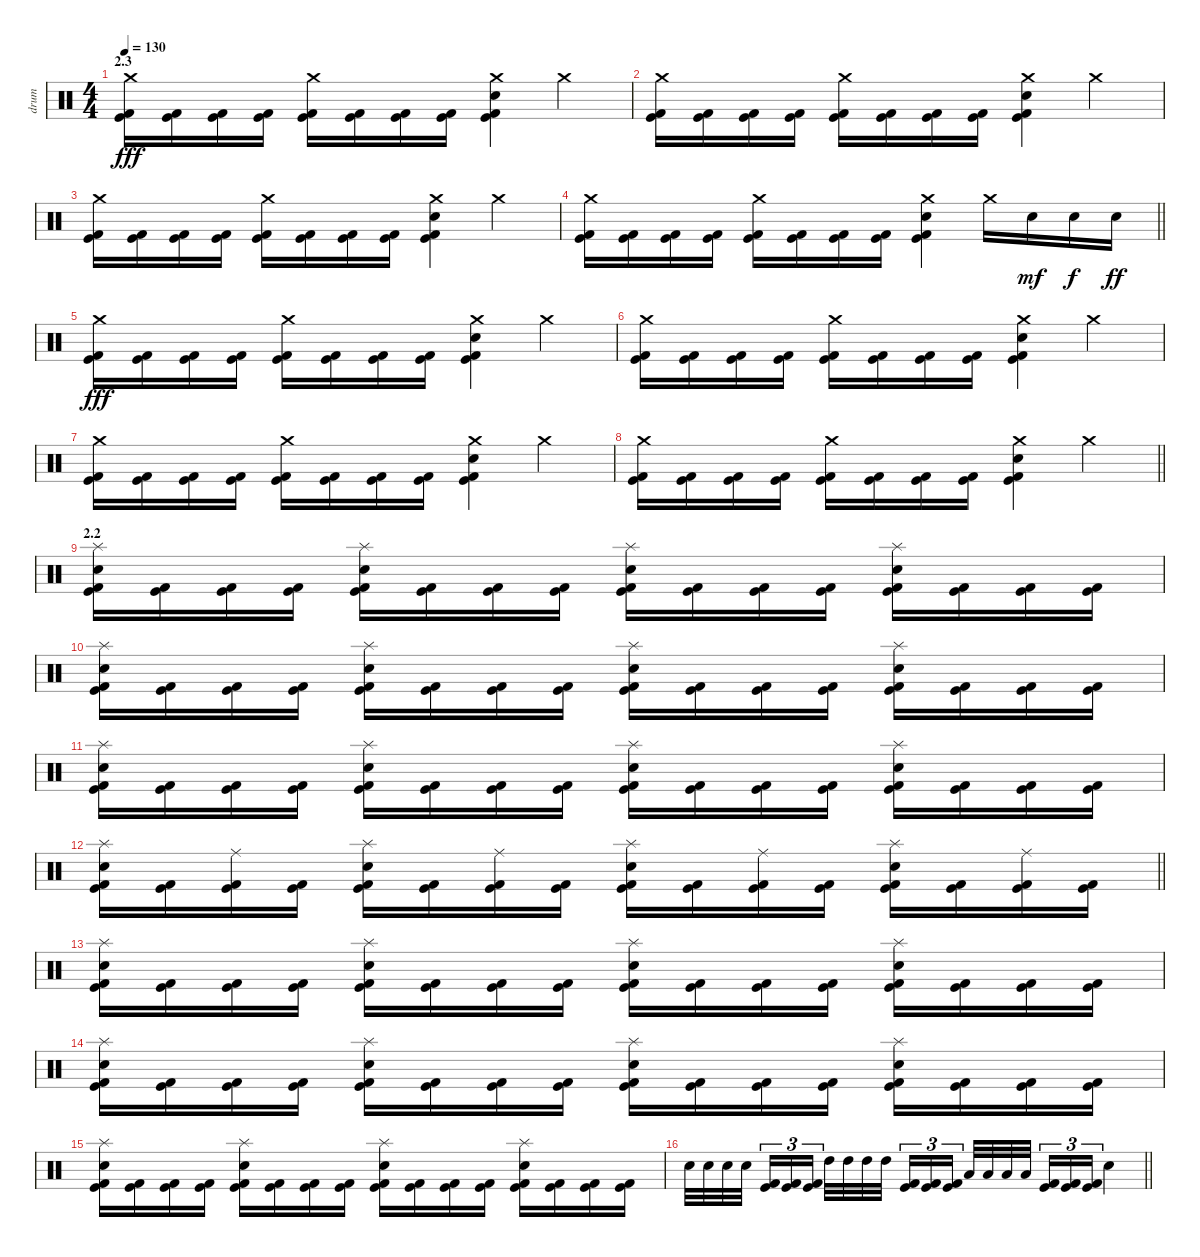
\track ("drum" "drum") {instrument percussion}
\staff {score}
\articulation defaults
\ts (4 4)
\section ("" "2.3")
\tempo 130
\clef neutral
\ks c
("Crash medium (hit)" "Kick (hit)" "Kick (hit) 2").16{dy fff} ("Kick (hit)" "Kick (hit) 2").16 ("Kick (hit)" "Kick (hit) 2").16 ("Kick (hit)" "Kick (hit) 2").16 ("Crash medium (hit)" "Kick (hit)" "Kick (hit) 2").16 ("Kick (hit)" "Kick (hit) 2").16 ("Kick (hit)" "Kick (hit) 2").16 ("Kick (hit)" "Kick (hit) 2").16 ("Crash medium (hit)" "Snare (hit) 2" "Kick (hit)" "Kick (hit) 2").4 "Crash medium (hit)".4 |
("Crash medium (hit)" "Kick (hit)" "Kick (hit) 2").16 ("Kick (hit)" "Kick (hit) 2").16 ("Kick (hit)" "Kick (hit) 2").16 ("Kick (hit)" "Kick (hit) 2").16 ("Crash medium (hit)" "Kick (hit)" "Kick (hit) 2").16 ("Kick (hit)" "Kick (hit) 2").16 ("Kick (hit)" "Kick (hit) 2").16 ("Kick (hit)" "Kick (hit) 2").16 ("Crash medium (hit)" "Snare (hit) 2" "Kick (hit)" "Kick (hit) 2").4 "Crash medium (hit)".4 |
("Crash medium (hit)" "Kick (hit)" "Kick (hit) 2").16 ("Kick (hit)" "Kick (hit) 2").16 ("Kick (hit)" "Kick (hit) 2").16 ("Kick (hit)" "Kick (hit) 2").16 ("Crash medium (hit)" "Kick (hit)" "Kick (hit) 2").16 ("Kick (hit)" "Kick (hit) 2").16 ("Kick (hit)" "Kick (hit) 2").16 ("Kick (hit)" "Kick (hit) 2").16 ("Crash medium (hit)" "Snare (hit) 2" "Kick (hit)" "Kick (hit) 2").4 "Crash medium (hit)".4 |
\barLineRight lightlight
("Crash medium (hit)" "Kick (hit)" "Kick (hit) 2").16 ("Kick (hit)" "Kick (hit) 2").16 ("Kick (hit)" "Kick (hit) 2").16 ("Kick (hit)" "Kick (hit) 2").16 ("Crash medium (hit)" "Kick (hit)" "Kick (hit) 2").16 ("Kick (hit)" "Kick (hit) 2").16 ("Kick (hit)" "Kick (hit) 2").16 ("Kick (hit)" "Kick (hit) 2").16 ("Crash medium (hit)" "Snare (hit) 2" "Kick (hit)" "Kick (hit) 2").4 "Crash medium (hit)".16 "Snare (hit) 2".16{dy mf} "Snare (hit) 2".16{dy f} "Snare (hit) 2".16{dy ff} |
("Crash medium (hit)" "Kick (hit)" "Kick (hit) 2").16{dy fff} ("Kick (hit)" "Kick (hit) 2").16 ("Kick (hit)" "Kick (hit) 2").16 ("Kick (hit)" "Kick (hit) 2").16 ("Crash medium (hit)" "Kick (hit)" "Kick (hit) 2").16 ("Kick (hit)" "Kick (hit) 2").16 ("Kick (hit)" "Kick (hit) 2").16 ("Kick (hit)" "Kick (hit) 2").16 ("Crash medium (hit)" "Snare (hit) 2" "Kick (hit)" "Kick (hit) 2").4 "Crash medium (hit)".4 |
("Crash medium (hit)" "Kick (hit)" "Kick (hit) 2").16 ("Kick (hit)" "Kick (hit) 2").16 ("Kick (hit)" "Kick (hit) 2").16 ("Kick (hit)" "Kick (hit) 2").16 ("Crash medium (hit)" "Kick (hit)" "Kick (hit) 2").16 ("Kick (hit)" "Kick (hit) 2").16 ("Kick (hit)" "Kick (hit) 2").16 ("Kick (hit)" "Kick (hit) 2").16 ("Crash medium (hit)" "Snare (hit) 2" "Kick (hit)" "Kick (hit) 2").4 "Crash medium (hit)".4 |
("Crash medium (hit)" "Kick (hit)" "Kick (hit) 2").16 ("Kick (hit)" "Kick (hit) 2").16 ("Kick (hit)" "Kick (hit) 2").16 ("Kick (hit)" "Kick (hit) 2").16 ("Crash medium (hit)" "Kick (hit)" "Kick (hit) 2").16 ("Kick (hit)" "Kick (hit) 2").16 ("Kick (hit)" "Kick (hit) 2").16 ("Kick (hit)" "Kick (hit) 2").16 ("Crash medium (hit)" "Snare (hit) 2" "Kick (hit)" "Kick (hit) 2").4 "Crash medium (hit)".4 |
\barLineRight lightlight
("Crash medium (hit)" "Kick (hit)" "Kick (hit) 2").16 ("Kick (hit)" "Kick (hit) 2").16 ("Kick (hit)" "Kick (hit) 2").16 ("Kick (hit)" "Kick (hit) 2").16 ("Crash medium (hit)" "Kick (hit)" "Kick (hit) 2").16 ("Kick (hit)" "Kick (hit) 2").16 ("Kick (hit)" "Kick (hit) 2").16 ("Kick (hit)" "Kick (hit) 2").16 ("Crash medium (hit)" "Snare (hit) 2" "Kick (hit)" "Kick (hit) 2").4 "Crash medium (hit)".4 |
\section ("" "2.2")
("Splash (hit)" "Snare (hit) 2" "Kick (hit)" "Kick (hit) 2").16 ("Kick (hit)" "Kick (hit) 2").16 ("Kick (hit)" "Kick (hit) 2").16 ("Kick (hit)" "Kick (hit) 2").16 ("Splash (hit)" "Snare (hit) 2" "Kick (hit)" "Kick (hit) 2").16 ("Kick (hit)" "Kick (hit) 2").16 ("Kick (hit)" "Kick (hit) 2").16 ("Kick (hit)" "Kick (hit) 2").16 ("Splash (hit)" "Snare (hit) 2" "Kick (hit)" "Kick (hit) 2").16 ("Kick (hit)" "Kick (hit) 2").16 ("Kick (hit)" "Kick (hit) 2").16 ("Kick (hit)" "Kick (hit) 2").16 ("Splash (hit)" "Snare (hit) 2" "Kick (hit)" "Kick (hit) 2").16 ("Kick (hit)" "Kick (hit) 2").16 ("Kick (hit)" "Kick (hit) 2").16 ("Kick (hit)" "Kick (hit) 2").16 |
("Splash (hit)" "Snare (hit) 2" "Kick (hit)" "Kick (hit) 2").16 ("Kick (hit)" "Kick (hit) 2").16 ("Kick (hit)" "Kick (hit) 2").16 ("Kick (hit)" "Kick (hit) 2").16 ("Splash (hit)" "Snare (hit) 2" "Kick (hit)" "Kick (hit) 2").16 ("Kick (hit)" "Kick (hit) 2").16 ("Kick (hit)" "Kick (hit) 2").16 ("Kick (hit)" "Kick (hit) 2").16 ("Splash (hit)" "Snare (hit) 2" "Kick (hit)" "Kick (hit) 2").16 ("Kick (hit)" "Kick (hit) 2").16 ("Kick (hit)" "Kick (hit) 2").16 ("Kick (hit)" "Kick (hit) 2").16 ("Splash (hit)" "Snare (hit) 2" "Kick (hit)" "Kick (hit) 2").16 ("Kick (hit)" "Kick (hit) 2").16 ("Kick (hit)" "Kick (hit) 2").16 ("Kick (hit)" "Kick (hit) 2").16 |
("Splash (hit)" "Snare (hit) 2" "Kick (hit)" "Kick (hit) 2").16 ("Kick (hit)" "Kick (hit) 2").16 ("Kick (hit)" "Kick (hit) 2").16 ("Kick (hit)" "Kick (hit) 2").16 ("Splash (hit)" "Snare (hit) 2" "Kick (hit)" "Kick (hit) 2").16 ("Kick (hit)" "Kick (hit) 2").16 ("Kick (hit)" "Kick (hit) 2").16 ("Kick (hit)" "Kick (hit) 2").16 ("Splash (hit)" "Snare (hit) 2" "Kick (hit)" "Kick (hit) 2").16 ("Kick (hit)" "Kick (hit) 2").16 ("Kick (hit)" "Kick (hit) 2").16 ("Kick (hit)" "Kick (hit) 2").16 ("Splash (hit)" "Snare (hit) 2" "Kick (hit)" "Kick (hit) 2").16 ("Kick (hit)" "Kick (hit) 2").16 ("Kick (hit)" "Kick (hit) 2").16 ("Kick (hit)" "Kick (hit) 2").16 |
\barLineRight lightlight
("Splash (hit)" "Snare (hit) 2" "Kick (hit)" "Kick (hit) 2").16 ("Kick (hit)" "Kick (hit) 2").16 ("Ride (middle)" "Kick (hit)" "Kick (hit) 2").16 ("Kick (hit)" "Kick (hit) 2").16 ("Splash (hit)" "Snare (hit) 2" "Kick (hit)" "Kick (hit) 2").16 ("Kick (hit)" "Kick (hit) 2").16 ("Ride (middle)" "Kick (hit)" "Kick (hit) 2").16 ("Kick (hit)" "Kick (hit) 2").16 ("Splash (hit)" "Snare (hit) 2" "Kick (hit)" "Kick (hit) 2").16 ("Kick (hit)" "Kick (hit) 2").16 ("Ride (middle)" "Kick (hit)" "Kick (hit) 2").16 ("Kick (hit)" "Kick (hit) 2").16 ("Splash (hit)" "Snare (hit) 2" "Kick (hit)" "Kick (hit) 2").16 ("Kick (hit)" "Kick (hit) 2").16 ("Ride (middle)" "Kick (hit)" "Kick (hit) 2").16 ("Kick (hit)" "Kick (hit) 2").16 |
("Splash (hit)" "Snare (hit) 2" "Kick (hit)" "Kick (hit) 2").16 ("Kick (hit)" "Kick (hit) 2").16 ("Kick (hit)" "Kick (hit) 2").16 ("Kick (hit)" "Kick (hit) 2").16 ("Splash (hit)" "Snare (hit) 2" "Kick (hit)" "Kick (hit) 2").16 ("Kick (hit)" "Kick (hit) 2").16 ("Kick (hit)" "Kick (hit) 2").16 ("Kick (hit)" "Kick (hit) 2").16 ("Splash (hit)" "Snare (hit) 2" "Kick (hit)" "Kick (hit) 2").16 ("Kick (hit)" "Kick (hit) 2").16 ("Kick (hit)" "Kick (hit) 2").16 ("Kick (hit)" "Kick (hit) 2").16 ("Splash (hit)" "Snare (hit) 2" "Kick (hit)" "Kick (hit) 2").16 ("Kick (hit)" "Kick (hit) 2").16 ("Kick (hit)" "Kick (hit) 2").16 ("Kick (hit)" "Kick (hit) 2").16 |
("Splash (hit)" "Snare (hit) 2" "Kick (hit)" "Kick (hit) 2").16 ("Kick (hit)" "Kick (hit) 2").16 ("Kick (hit)" "Kick (hit) 2").16 ("Kick (hit)" "Kick (hit) 2").16 ("Splash (hit)" "Snare (hit) 2" "Kick (hit)" "Kick (hit) 2").16 ("Kick (hit)" "Kick (hit) 2").16 ("Kick (hit)" "Kick (hit) 2").16 ("Kick (hit)" "Kick (hit) 2").16 ("Splash (hit)" "Snare (hit) 2" "Kick (hit)" "Kick (hit) 2").16 ("Kick (hit)" "Kick (hit) 2").16 ("Kick (hit)" "Kick (hit) 2").16 ("Kick (hit)" "Kick (hit) 2").16 ("Splash (hit)" "Snare (hit) 2" "Kick (hit)" "Kick (hit) 2").16 ("Kick (hit)" "Kick (hit) 2").16 ("Kick (hit)" "Kick (hit) 2").16 ("Kick (hit)" "Kick (hit) 2").16 |
("Splash (hit)" "Snare (hit) 2" "Kick (hit)" "Kick (hit) 2").16 ("Kick (hit)" "Kick (hit) 2").16 ("Kick (hit)" "Kick (hit) 2").16 ("Kick (hit)" "Kick (hit) 2").16 ("Splash (hit)" "Snare (hit) 2" "Kick (hit)" "Kick (hit) 2").16 ("Kick (hit)" "Kick (hit) 2").16 ("Kick (hit)" "Kick (hit) 2").16 ("Kick (hit)" "Kick (hit) 2").16 ("Splash (hit)" "Snare (hit) 2" "Kick (hit)" "Kick (hit) 2").16 ("Kick (hit)" "Kick (hit) 2").16 ("Kick (hit)" "Kick (hit) 2").16 ("Kick (hit)" "Kick (hit) 2").16 ("Splash (hit)" "Snare (hit) 2" "Kick (hit)" "Kick (hit) 2").16 ("Kick (hit)" "Kick (hit) 2").16 ("Kick (hit)" "Kick (hit) 2").16 ("Kick (hit)" "Kick (hit) 2").16 |
\barLineRight lightlight "Snare (hit) 2".32 "Snare (hit) 2".32 "Snare (hit) 2".32 "Snare (hit) 2".32{beam splitsecondary}
("Kick (hit)" "Kick (hit) 2").16{tu (3 2)} ("Kick (hit)" "Kick (hit) 2").16{tu (3 2)} ("Kick (hit)" "Kick (hit) 2").16{tu (3 2)} "High Tom (hit)".32 "High Tom (hit)".32 "High Tom (hit)".32 "High Tom (hit)".32{beam splitsecondary} ("Kick (hit)" "Kick (hit) 2").16{tu (3 2)} ("Kick (hit)" "Kick (hit) 2").16{tu (3 2)} ("Kick (hit)" "Kick (hit) 2").16{tu (3 2)} "Low Tom (hit)".32 "Low Tom (hit)".32 "Low Tom (hit)".32 "Low Tom (hit)".32{beam splitsecondary} ("Kick (hit)" "Kick (hit) 2").16{tu (3 2)} ("Kick (hit)" "Kick (hit) 2").16{tu (3 2)} ("Kick (hit)" "Kick (hit) 2").16{tu (3 2)} "Snare (hit) 2".4
